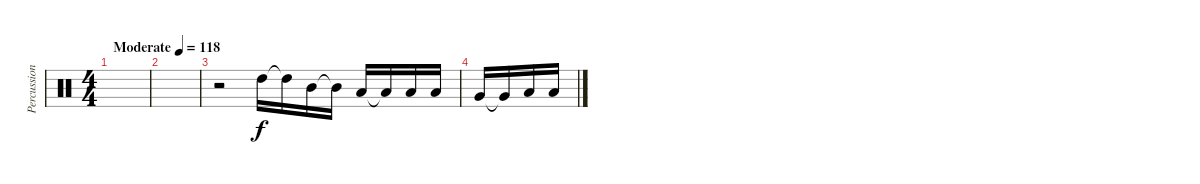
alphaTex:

\track ("Percussion" "Percussion") {instrument percussion}
\staff {score}
\articulation defaults
\ts (4 4)
\tempo (118 "Moderate")
\clef neutral
\ks c
|
|
r.2 "High Tom (hit)".16 "High Tom (hit)"{t}.16 "Mid Tom (hit)".16 "Mid Tom (hit)"{t}.16 "Low Tom (hit)".16 "Low Tom (hit)"{t}.16 "Low Tom (hit)".16 "Low Tom (hit)".16 |
"Very Low Tom (hit)".16 "Very Low Tom (hit)"{t}.16 "Low Floor Tom (hit)".16 "Low Floor Tom (hit)".16
